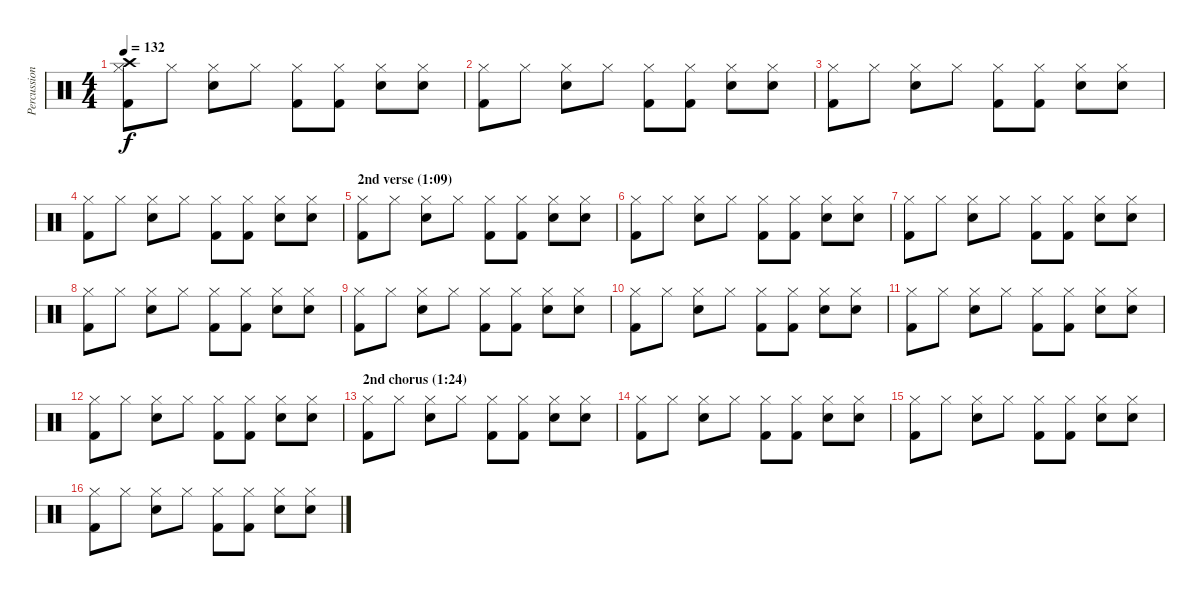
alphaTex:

\track ("Percussions" "Percussion") {instrument percussion}
\staff {score}
\articulation defaults
\ts (4 4)
\tempo 132
\clef neutral
\ks c
("Hi-Hat (closed)" "Crash high (hit)" "Kick (hit) 2").8{dy f} "Hi-Hat (closed)".8 ("Hi-Hat (closed)" "Snare (hit) 2").8 "Hi-Hat (closed)".8 ("Hi-Hat (closed)" "Kick (hit) 2").8 ("Hi-Hat (closed)" "Kick (hit) 2").8 ("Hi-Hat (closed)" "Snare (hit) 2").8 ("Hi-Hat (closed)" "Snare (hit) 2").8 |
("Hi-Hat (closed)" "Kick (hit) 2").8 "Hi-Hat (closed)".8 ("Hi-Hat (closed)" "Snare (hit) 2").8 "Hi-Hat (closed)".8 ("Hi-Hat (closed)" "Kick (hit) 2").8 ("Hi-Hat (closed)" "Kick (hit) 2").8 ("Hi-Hat (closed)" "Snare (hit) 2").8 ("Hi-Hat (closed)" "Snare (hit) 2").8 |
("Hi-Hat (closed)" "Kick (hit) 2").8 "Hi-Hat (closed)".8 ("Hi-Hat (closed)" "Snare (hit) 2").8 "Hi-Hat (closed)".8 ("Hi-Hat (closed)" "Kick (hit) 2").8 ("Hi-Hat (closed)" "Kick (hit) 2").8 ("Hi-Hat (closed)" "Snare (hit) 2").8 ("Hi-Hat (closed)" "Snare (hit) 2").8 |
("Hi-Hat (closed)" "Kick (hit) 2").8 "Hi-Hat (closed)".8 ("Hi-Hat (closed)" "Snare (hit) 2").8 "Hi-Hat (closed)".8 ("Hi-Hat (closed)" "Kick (hit) 2").8 ("Hi-Hat (closed)" "Kick (hit) 2").8 ("Hi-Hat (closed)" "Snare (hit) 2").8 ("Hi-Hat (closed)" "Snare (hit) 2").8 |
\section ("" "2nd verse (1:09)")
("Hi-Hat (closed)" "Kick (hit) 2").8 "Hi-Hat (closed)".8 ("Hi-Hat (closed)" "Snare (hit) 2").8 "Hi-Hat (closed)".8 ("Hi-Hat (closed)" "Kick (hit) 2").8 ("Hi-Hat (closed)" "Kick (hit) 2").8 ("Hi-Hat (closed)" "Snare (hit) 2").8 ("Hi-Hat (closed)" "Snare (hit) 2").8 |
("Hi-Hat (closed)" "Kick (hit) 2").8 "Hi-Hat (closed)".8 ("Hi-Hat (closed)" "Snare (hit) 2").8 "Hi-Hat (closed)".8 ("Hi-Hat (closed)" "Kick (hit) 2").8 ("Hi-Hat (closed)" "Kick (hit) 2").8 ("Hi-Hat (closed)" "Snare (hit) 2").8 ("Hi-Hat (closed)" "Snare (hit) 2").8 |
("Hi-Hat (closed)" "Kick (hit) 2").8 "Hi-Hat (closed)".8 ("Hi-Hat (closed)" "Snare (hit) 2").8 "Hi-Hat (closed)".8 ("Hi-Hat (closed)" "Kick (hit) 2").8 ("Hi-Hat (closed)" "Kick (hit) 2").8 ("Hi-Hat (closed)" "Snare (hit) 2").8 ("Hi-Hat (closed)" "Snare (hit) 2").8 |
("Hi-Hat (closed)" "Kick (hit) 2").8 "Hi-Hat (closed)".8 ("Hi-Hat (closed)" "Snare (hit) 2").8 "Hi-Hat (closed)".8 ("Hi-Hat (closed)" "Kick (hit) 2").8 ("Hi-Hat (closed)" "Kick (hit) 2").8 ("Hi-Hat (closed)" "Snare (hit) 2").8 ("Hi-Hat (closed)" "Snare (hit) 2").8 |
("Hi-Hat (closed)" "Kick (hit) 2").8 "Hi-Hat (closed)".8 ("Hi-Hat (closed)" "Snare (hit) 2").8 "Hi-Hat (closed)".8 ("Hi-Hat (closed)" "Kick (hit) 2").8 ("Hi-Hat (closed)" "Kick (hit) 2").8 ("Hi-Hat (closed)" "Snare (hit) 2").8 ("Hi-Hat (closed)" "Snare (hit) 2").8 |
("Hi-Hat (closed)" "Kick (hit) 2").8 "Hi-Hat (closed)".8 ("Hi-Hat (closed)" "Snare (hit) 2").8 "Hi-Hat (closed)".8 ("Hi-Hat (closed)" "Kick (hit) 2").8 ("Hi-Hat (closed)" "Kick (hit) 2").8 ("Hi-Hat (closed)" "Snare (hit) 2").8 ("Hi-Hat (closed)" "Snare (hit) 2").8 |
("Hi-Hat (closed)" "Kick (hit) 2").8 "Hi-Hat (closed)".8 ("Hi-Hat (closed)" "Snare (hit) 2").8 "Hi-Hat (closed)".8 ("Hi-Hat (closed)" "Kick (hit) 2").8 ("Hi-Hat (closed)" "Kick (hit) 2").8 ("Hi-Hat (closed)" "Snare (hit) 2").8 ("Hi-Hat (closed)" "Snare (hit) 2").8 |
("Hi-Hat (closed)" "Kick (hit) 2").8 "Hi-Hat (closed)".8 ("Hi-Hat (closed)" "Snare (hit) 2").8 "Hi-Hat (closed)".8 ("Hi-Hat (closed)" "Kick (hit) 2").8 ("Hi-Hat (closed)" "Kick (hit) 2").8 ("Hi-Hat (closed)" "Snare (hit) 2").8 ("Hi-Hat (closed)" "Snare (hit) 2").8 |
\section ("" "2nd chorus (1:24)")
("Hi-Hat (closed)" "Kick (hit) 2").8 "Hi-Hat (closed)".8 ("Hi-Hat (closed)" "Snare (hit) 2").8 "Hi-Hat (closed)".8 ("Hi-Hat (closed)" "Kick (hit) 2").8 ("Hi-Hat (closed)" "Kick (hit) 2").8 ("Hi-Hat (closed)" "Snare (hit) 2").8 ("Hi-Hat (closed)" "Snare (hit) 2").8 |
("Hi-Hat (closed)" "Kick (hit) 2").8 "Hi-Hat (closed)".8 ("Hi-Hat (closed)" "Snare (hit) 2").8 "Hi-Hat (closed)".8 ("Hi-Hat (closed)" "Kick (hit) 2").8 ("Hi-Hat (closed)" "Kick (hit) 2").8 ("Hi-Hat (closed)" "Snare (hit) 2").8 ("Hi-Hat (closed)" "Snare (hit) 2").8 |
("Hi-Hat (closed)" "Kick (hit) 2").8 "Hi-Hat (closed)".8 ("Hi-Hat (closed)" "Snare (hit) 2").8 "Hi-Hat (closed)".8 ("Hi-Hat (closed)" "Kick (hit) 2").8 ("Hi-Hat (closed)" "Kick (hit) 2").8 ("Hi-Hat (closed)" "Snare (hit) 2").8 ("Hi-Hat (closed)" "Snare (hit) 2").8 |
("Hi-Hat (closed)" "Kick (hit) 2").8 "Hi-Hat (closed)".8 ("Hi-Hat (closed)" "Snare (hit) 2").8 "Hi-Hat (closed)".8 ("Hi-Hat (closed)" "Kick (hit) 2").8 ("Hi-Hat (closed)" "Kick (hit) 2").8 ("Hi-Hat (closed)" "Snare (hit) 2").8 ("Hi-Hat (closed)" "Snare (hit) 2").8
